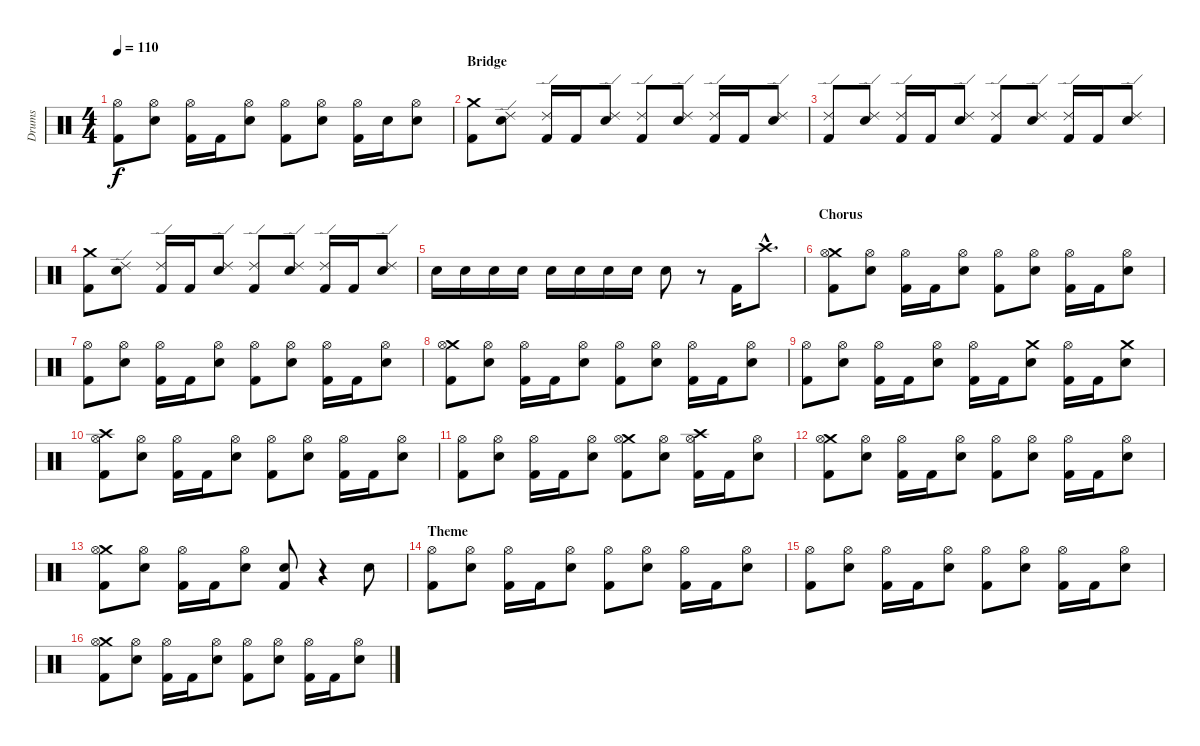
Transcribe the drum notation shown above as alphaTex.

\track ("Drums" "Drums") {instrument percussion}
\staff {score}
\articulation defaults
\ts (4 4)
\tempo 110
\clef neutral
\ks c
("Hi-Hat (open)" "Kick (hit) 2").8{dy f} ("Hi-Hat (open)" "Electric Snare (hit)").8 ("Hi-Hat (open)" "Kick (hit) 2").16 "Kick (hit) 2".16 ("Hi-Hat (open)" "Electric Snare (hit)").8 ("Hi-Hat (open)" "Kick (hit) 2").8 ("Hi-Hat (open)" "Electric Snare (hit)").8 ("Hi-Hat (open)" "Kick (hit) 2").16 "Electric Snare (hit)".16 ("Hi-Hat (open)" "Electric Snare (hit)").8 |
\section ("" "Bridge")
("Crash medium (hit)" "Kick (hit) 2").8 ("Ride (edge) 2" "Electric Snare (hit)").8 ("Ride (edge) 2" "Kick (hit) 2").16 "Kick (hit) 2".16 ("Ride (edge) 2" "Electric Snare (hit)").8 ("Ride (edge) 2" "Kick (hit) 2").8 ("Ride (edge) 2" "Electric Snare (hit)").8 ("Ride (edge) 2" "Kick (hit) 2").16 "Kick (hit) 2".16 ("Ride (edge) 2" "Electric Snare (hit)").8 |
("Ride (edge) 2" "Kick (hit) 2").8 ("Ride (edge) 2" "Electric Snare (hit)").8 ("Ride (edge) 2" "Kick (hit) 2").16 "Kick (hit) 2".16 ("Ride (edge) 2" "Electric Snare (hit)").8 ("Ride (edge) 2" "Kick (hit) 2").8 ("Ride (edge) 2" "Electric Snare (hit)").8 ("Ride (edge) 2" "Kick (hit) 2").16 "Kick (hit) 2".16 ("Ride (edge) 2" "Electric Snare (hit)").8 |
("Crash medium (hit)" "Kick (hit) 2").8 ("Ride (edge) 2" "Electric Snare (hit)").8 ("Ride (edge) 2" "Kick (hit) 2").16 "Kick (hit) 2".16 ("Ride (edge) 2" "Electric Snare (hit)").8 ("Ride (edge) 2" "Kick (hit) 2").8 ("Ride (edge) 2" "Electric Snare (hit)").8 ("Ride (edge) 2" "Kick (hit) 2").16 "Kick (hit) 2".16 ("Ride (edge) 2" "Electric Snare (hit)").8 |
"Electric Snare (hit)".16 "Electric Snare (hit)".16 "Electric Snare (hit)".16 "Electric Snare (hit)".16 "Electric Snare (hit)".16 "Electric Snare (hit)".16 "Electric Snare (hit)".16 "Electric Snare (hit)".16 "Electric Snare (hit)".8 r.8 "Kick (hit) 2".16 "Crash high (hit)"{hac}.8{d} |
\section ("" "Chorus")
("Crash medium (hit)" "Hi-Hat (open)" "Kick (hit) 2").8 ("Hi-Hat (open)" "Electric Snare (hit)").8 ("Hi-Hat (open)" "Kick (hit) 2").16 "Kick (hit) 2".16 ("Hi-Hat (open)" "Electric Snare (hit)").8 ("Hi-Hat (open)" "Kick (hit) 2").8 ("Hi-Hat (open)" "Electric Snare (hit)").8 ("Hi-Hat (open)" "Kick (hit) 2").16 "Kick (hit) 2".16 ("Hi-Hat (open)" "Electric Snare (hit)").8 |
("Hi-Hat (open)" "Kick (hit) 2").8 ("Hi-Hat (open)" "Electric Snare (hit)").8 ("Hi-Hat (open)" "Kick (hit) 2").16 "Kick (hit) 2".16 ("Hi-Hat (open)" "Electric Snare (hit)").8 ("Hi-Hat (open)" "Kick (hit) 2").8 ("Hi-Hat (open)" "Electric Snare (hit)").8 ("Hi-Hat (open)" "Kick (hit) 2").16 "Kick (hit) 2".16 ("Hi-Hat (open)" "Electric Snare (hit)").8 |
("Crash medium (hit)" "Hi-Hat (open)" "Kick (hit) 2").8 ("Hi-Hat (open)" "Electric Snare (hit)").8 ("Hi-Hat (open)" "Kick (hit) 2").16 "Kick (hit) 2".16 ("Hi-Hat (open)" "Electric Snare (hit)").8 ("Hi-Hat (open)" "Kick (hit) 2").8 ("Hi-Hat (open)" "Electric Snare (hit)").8 ("Hi-Hat (open)" "Kick (hit) 2").16 "Kick (hit) 2".16 ("Hi-Hat (open)" "Electric Snare (hit)").8 |
("Hi-Hat (open)" "Kick (hit) 2").8 ("Hi-Hat (open)" "Electric Snare (hit)").8 ("Hi-Hat (open)" "Kick (hit) 2").16 "Kick (hit) 2".16 ("Hi-Hat (open)" "Electric Snare (hit)").8 ("Hi-Hat (open)" "Kick (hit) 2").16 "Kick (hit) 2".16 ("Crash medium (hit)" "Electric Snare (hit)").8 ("Hi-Hat (open)" "Kick (hit) 2").16 "Kick (hit) 2".16 ("Crash medium (hit)" "Electric Snare (hit)").8 |
("Crash high (hit)" "Hi-Hat (open)" "Kick (hit) 2").8 ("Hi-Hat (open)" "Electric Snare (hit)").8 ("Hi-Hat (open)" "Kick (hit) 2").16 "Kick (hit) 2".16 ("Hi-Hat (open)" "Electric Snare (hit)").8 ("Hi-Hat (open)" "Kick (hit) 2").8 ("Hi-Hat (open)" "Electric Snare (hit)").8 ("Hi-Hat (open)" "Kick (hit) 2").16 "Kick (hit) 2".16 ("Hi-Hat (open)" "Electric Snare (hit)").8 |
("Hi-Hat (open)" "Kick (hit) 2").8 ("Hi-Hat (open)" "Electric Snare (hit)").8 ("Hi-Hat (open)" "Kick (hit) 2").16 "Kick (hit) 2".16 ("Hi-Hat (open)" "Electric Snare (hit)").8 ("Crash medium (hit)" "Hi-Hat (open)" "Kick (hit) 2").8 ("Hi-Hat (open)" "Electric Snare (hit)").8 ("Crash high (hit)" "Hi-Hat (open)" "Kick (hit) 2").16 "Kick (hit) 2".16 ("Hi-Hat (open)" "Electric Snare (hit)").8 |
("Crash medium (hit)" "Hi-Hat (open)" "Kick (hit) 2").8 ("Hi-Hat (open)" "Electric Snare (hit)").8 ("Hi-Hat (open)" "Kick (hit) 2").16 "Kick (hit) 2".16 ("Hi-Hat (open)" "Electric Snare (hit)").8 ("Hi-Hat (open)" "Kick (hit) 2").8 ("Hi-Hat (open)" "Electric Snare (hit)").8 ("Hi-Hat (open)" "Kick (hit) 2").16 "Kick (hit) 2".16 ("Hi-Hat (open)" "Electric Snare (hit)").8 |
("Crash medium (hit)" "Hi-Hat (open)" "Kick (hit) 2").8 ("Hi-Hat (open)" "Electric Snare (hit)").8 ("Hi-Hat (open)" "Kick (hit) 2").16 "Kick (hit) 2".16 ("Hi-Hat (open)" "Electric Snare (hit)").8 ("Electric Snare (hit)" "Kick (hit) 2").8 r.4 "Electric Snare (hit)".8 |
\section ("" "Theme")
("Hi-Hat (open)" "Kick (hit) 2").8 ("Hi-Hat (open)" "Electric Snare (hit)").8 ("Hi-Hat (open)" "Kick (hit) 2").16 "Kick (hit) 2".16 ("Hi-Hat (open)" "Electric Snare (hit)").8 ("Hi-Hat (open)" "Kick (hit) 2").8 ("Hi-Hat (open)" "Electric Snare (hit)").8 ("Hi-Hat (open)" "Kick (hit) 2").16 "Kick (hit) 2".16 ("Hi-Hat (open)" "Electric Snare (hit)").8 |
("Hi-Hat (open)" "Kick (hit) 2").8 ("Hi-Hat (open)" "Electric Snare (hit)").8 ("Hi-Hat (open)" "Kick (hit) 2").16 "Kick (hit) 2".16 ("Hi-Hat (open)" "Electric Snare (hit)").8 ("Hi-Hat (open)" "Kick (hit) 2").8 ("Hi-Hat (open)" "Electric Snare (hit)").8 ("Hi-Hat (open)" "Kick (hit) 2").16 "Kick (hit) 2".16 ("Hi-Hat (open)" "Electric Snare (hit)").8 |
("Crash medium (hit)" "Hi-Hat (open)" "Kick (hit) 2").8 ("Hi-Hat (open)" "Electric Snare (hit)").8 ("Hi-Hat (open)" "Kick (hit) 2").16 "Kick (hit) 2".16 ("Hi-Hat (open)" "Electric Snare (hit)").8 ("Hi-Hat (open)" "Kick (hit) 2").8 ("Hi-Hat (open)" "Electric Snare (hit)").8 ("Hi-Hat (open)" "Kick (hit) 2").16 "Kick (hit) 2".16 ("Hi-Hat (open)" "Electric Snare (hit)").8
